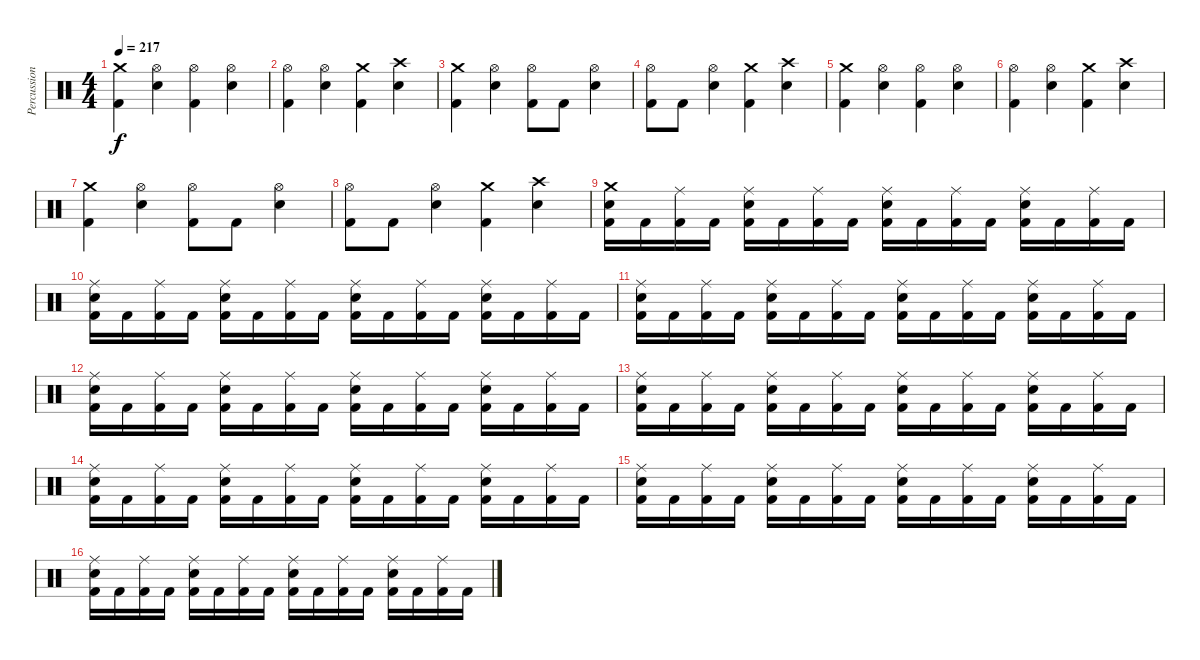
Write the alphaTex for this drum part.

\track ("Percussions" "Percussion") {instrument percussion}
\staff {score}
\articulation defaults
\ts (4 4)
\tempo 217
\clef neutral
\ks c
("Crash medium (hit)" "Kick (hit) 2").4{dy f} ("Hi-Hat (open)" "Electric Snare (hit)").4 ("Hi-Hat (open)" "Kick (hit) 2").4 ("Hi-Hat (open)" "Electric Snare (hit)").4 |
("Hi-Hat (open)" "Kick (hit) 2").4 ("Hi-Hat (open)" "Electric Snare (hit)").4 ("Crash medium (hit)" "Kick (hit) 2").4 ("Crash high (hit)" "Electric Snare (hit)").4 |
("Crash medium (hit)" "Kick (hit) 2").4 ("Hi-Hat (open)" "Electric Snare (hit)").4 ("Hi-Hat (open)" "Kick (hit) 2").8 "Kick (hit) 2".8 ("Hi-Hat (open)" "Electric Snare (hit)").4 |
("Hi-Hat (open)" "Kick (hit) 2").8 "Kick (hit) 2".8 ("Hi-Hat (open)" "Electric Snare (hit)").4 ("Crash medium (hit)" "Kick (hit) 2").4 ("Crash high (hit)" "Electric Snare (hit)").4 |
("Crash medium (hit)" "Kick (hit) 2").4 ("Hi-Hat (open)" "Electric Snare (hit)").4 ("Hi-Hat (open)" "Kick (hit) 2").4 ("Hi-Hat (open)" "Electric Snare (hit)").4 |
("Hi-Hat (open)" "Kick (hit) 2").4 ("Hi-Hat (open)" "Electric Snare (hit)").4 ("Crash medium (hit)" "Kick (hit) 2").4 ("Crash high (hit)" "Electric Snare (hit)").4 |
("Crash medium (hit)" "Kick (hit) 2").4 ("Hi-Hat (open)" "Electric Snare (hit)").4 ("Hi-Hat (open)" "Kick (hit) 2").8 "Kick (hit) 2".8 ("Hi-Hat (open)" "Electric Snare (hit)").4 |
("Hi-Hat (open)" "Kick (hit) 2").8 "Kick (hit) 2".8 ("Hi-Hat (open)" "Electric Snare (hit)").4 ("Crash medium (hit)" "Kick (hit) 2").4 ("Crash high (hit)" "Electric Snare (hit)").4 |
("Crash medium (hit)" "Electric Snare (hit)" "Kick (hit) 2").16 "Kick (hit) 2".16 ("Ride (middle)" "Kick (hit) 2").16 "Kick (hit) 2".16 ("Ride (middle)" "Electric Snare (hit)" "Kick (hit) 2").16 "Kick (hit) 2".16 ("Ride (middle)" "Kick (hit) 2").16 "Kick (hit) 2".16 ("Ride (middle)" "Electric Snare (hit)" "Kick (hit) 2").16 "Kick (hit) 2".16 ("Ride (middle)" "Kick (hit) 2").16 "Kick (hit) 2".16 ("Ride (middle)" "Electric Snare (hit)" "Kick (hit) 2").16 "Kick (hit) 2".16 ("Ride (middle)" "Kick (hit) 2").16 "Kick (hit) 2".16 |
("Ride (middle)" "Electric Snare (hit)" "Kick (hit) 2").16 "Kick (hit) 2".16 ("Ride (middle)" "Kick (hit) 2").16 "Kick (hit) 2".16 ("Ride (middle)" "Electric Snare (hit)" "Kick (hit) 2").16 "Kick (hit) 2".16 ("Ride (middle)" "Kick (hit) 2").16 "Kick (hit) 2".16 ("Ride (middle)" "Electric Snare (hit)" "Kick (hit) 2").16 "Kick (hit) 2".16 ("Ride (middle)" "Kick (hit) 2").16 "Kick (hit) 2".16 ("Ride (middle)" "Electric Snare (hit)" "Kick (hit) 2").16 "Kick (hit) 2".16 ("Ride (middle)" "Kick (hit) 2").16 "Kick (hit) 2".16 |
("Ride (middle)" "Electric Snare (hit)" "Kick (hit) 2").16 "Kick (hit) 2".16 ("Ride (middle)" "Kick (hit) 2").16 "Kick (hit) 2".16 ("Ride (middle)" "Electric Snare (hit)" "Kick (hit) 2").16 "Kick (hit) 2".16 ("Ride (middle)" "Kick (hit) 2").16 "Kick (hit) 2".16 ("Ride (middle)" "Electric Snare (hit)" "Kick (hit) 2").16 "Kick (hit) 2".16 ("Ride (middle)" "Kick (hit) 2").16 "Kick (hit) 2".16 ("Ride (middle)" "Electric Snare (hit)" "Kick (hit) 2").16 "Kick (hit) 2".16 ("Ride (middle)" "Kick (hit) 2").16 "Kick (hit) 2".16 |
("Ride (middle)" "Electric Snare (hit)" "Kick (hit) 2").16 "Kick (hit) 2".16 ("Ride (middle)" "Kick (hit) 2").16 "Kick (hit) 2".16 ("Ride (middle)" "Electric Snare (hit)" "Kick (hit) 2").16 "Kick (hit) 2".16 ("Ride (middle)" "Kick (hit) 2").16 "Kick (hit) 2".16 ("Ride (middle)" "Electric Snare (hit)" "Kick (hit) 2").16 "Kick (hit) 2".16 ("Ride (middle)" "Kick (hit) 2").16 "Kick (hit) 2".16 ("Ride (middle)" "Electric Snare (hit)" "Kick (hit) 2").16 "Kick (hit) 2".16 ("Ride (middle)" "Kick (hit) 2").16 "Kick (hit) 2".16 |
("Ride (middle)" "Electric Snare (hit)" "Kick (hit) 2").16 "Kick (hit) 2".16 ("Ride (middle)" "Kick (hit) 2").16 "Kick (hit) 2".16 ("Ride (middle)" "Electric Snare (hit)" "Kick (hit) 2").16 "Kick (hit) 2".16 ("Ride (middle)" "Kick (hit) 2").16 "Kick (hit) 2".16 ("Ride (middle)" "Electric Snare (hit)" "Kick (hit) 2").16 "Kick (hit) 2".16 ("Ride (middle)" "Kick (hit) 2").16 "Kick (hit) 2".16 ("Ride (middle)" "Electric Snare (hit)" "Kick (hit) 2").16 "Kick (hit) 2".16 ("Ride (middle)" "Kick (hit) 2").16 "Kick (hit) 2".16 |
("Ride (middle)" "Electric Snare (hit)" "Kick (hit) 2").16 "Kick (hit) 2".16 ("Ride (middle)" "Kick (hit) 2").16 "Kick (hit) 2".16 ("Ride (middle)" "Electric Snare (hit)" "Kick (hit) 2").16 "Kick (hit) 2".16 ("Ride (middle)" "Kick (hit) 2").16 "Kick (hit) 2".16 ("Ride (middle)" "Electric Snare (hit)" "Kick (hit) 2").16 "Kick (hit) 2".16 ("Ride (middle)" "Kick (hit) 2").16 "Kick (hit) 2".16 ("Ride (middle)" "Electric Snare (hit)" "Kick (hit) 2").16 "Kick (hit) 2".16 ("Ride (middle)" "Kick (hit) 2").16 "Kick (hit) 2".16 |
("Ride (middle)" "Electric Snare (hit)" "Kick (hit) 2").16 "Kick (hit) 2".16 ("Ride (middle)" "Kick (hit) 2").16 "Kick (hit) 2".16 ("Ride (middle)" "Electric Snare (hit)" "Kick (hit) 2").16 "Kick (hit) 2".16 ("Ride (middle)" "Kick (hit) 2").16 "Kick (hit) 2".16 ("Ride (middle)" "Electric Snare (hit)" "Kick (hit) 2").16 "Kick (hit) 2".16 ("Ride (middle)" "Kick (hit) 2").16 "Kick (hit) 2".16 ("Ride (middle)" "Electric Snare (hit)" "Kick (hit) 2").16 "Kick (hit) 2".16 ("Ride (middle)" "Kick (hit) 2").16 "Kick (hit) 2".16 |
("Ride (middle)" "Electric Snare (hit)" "Kick (hit) 2").16 "Kick (hit) 2".16 ("Ride (middle)" "Kick (hit) 2").16 "Kick (hit) 2".16 ("Ride (middle)" "Electric Snare (hit)" "Kick (hit) 2").16 "Kick (hit) 2".16 ("Ride (middle)" "Kick (hit) 2").16 "Kick (hit) 2".16 ("Ride (middle)" "Electric Snare (hit)" "Kick (hit) 2").16 "Kick (hit) 2".16 ("Ride (middle)" "Kick (hit) 2").16 "Kick (hit) 2".16 ("Ride (middle)" "Electric Snare (hit)" "Kick (hit) 2").16 "Kick (hit) 2".16 ("Ride (middle)" "Kick (hit) 2").16 "Kick (hit) 2".16
